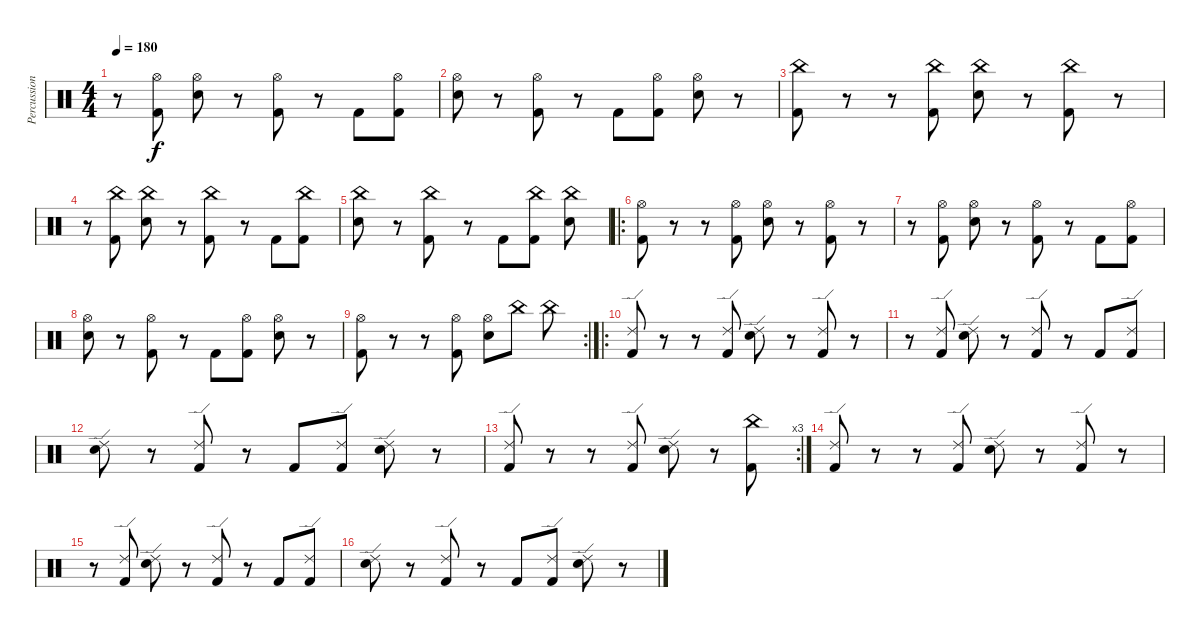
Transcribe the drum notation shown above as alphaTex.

\track ("Percussion" "Percussion") {instrument percussion}
\staff {score}
\articulation defaults
\ts (4 4)
\tempo 180
\clef neutral
\ks c
r.8{dy f} ("Kick (hit) 2" "Hi-Hat (open)").8 ("Electric Snare (hit)" "Hi-Hat (open)").8 r.8 ("Kick (hit) 2" "Hi-Hat (open)").8 r.8 "Kick (hit) 2".8 ("Kick (hit) 2" "Hi-Hat (open)").8 |
("Electric Snare (hit)" "Hi-Hat (open)").8 r.8 ("Kick (hit) 2" "Hi-Hat (open)").8 r.8 "Kick (hit) 2".8 ("Kick (hit) 2" "Hi-Hat (open)").8 ("Electric Snare (hit)" "Hi-Hat (open)").8 r.8 |
("Kick (hit) 2" "China (hit)").8 r.8 r.8 ("Kick (hit) 2" "China (hit)").8 ("Snare (hit) 2" "China (hit)").8 r.8 ("Kick (hit) 2" "China (hit)").8 r.8 |
r.8 ("Kick (hit) 2" "China (hit)").8 ("Snare (hit) 2" "China (hit)").8 r.8 ("Kick (hit) 2" "China (hit)").8 r.8 "Kick (hit) 2".8 ("Kick (hit) 2" "China (hit)").8 |
("Snare (hit) 2" "China (hit)").8 r.8 ("Kick (hit) 2" "China (hit)").8 r.8 "Kick (hit) 2".8 ("Kick (hit) 2" "China (hit)").8 ("Snare (hit) 2" "China (hit)").8 |
\ro
("Kick (hit) 2" "Hi-Hat (open)").8 r.8 r.8 ("Kick (hit) 2" "Hi-Hat (open)").8 ("Electric Snare (hit)" "Hi-Hat (open)").8 r.8 ("Kick (hit) 2" "Hi-Hat (open)").8 r.8 |
r.8 ("Kick (hit) 2" "Hi-Hat (open)").8 ("Electric Snare (hit)" "Hi-Hat (open)").8 r.8 ("Kick (hit) 2" "Hi-Hat (open)").8 r.8 "Kick (hit) 2".8 ("Kick (hit) 2" "Hi-Hat (open)").8 |
("Electric Snare (hit)" "Hi-Hat (open)").8 r.8 ("Kick (hit) 2" "Hi-Hat (open)").8 r.8 "Kick (hit) 2".8 ("Kick (hit) 2" "Hi-Hat (open)").8 ("Electric Snare (hit)" "Hi-Hat (open)").8 r.8 |
\rc 2
("Kick (hit) 2" "Hi-Hat (open)").8 r.8 r.8 ("Kick (hit) 2" "Hi-Hat (open)").8 ("Electric Snare (hit)" "Hi-Hat (open)").8 "China (hit)".8 "China (hit)".8 |
\ro
("Kick (hit) 2" "Ride (edge) 2").8 r.8 r.8 ("Kick (hit) 2" "Ride (edge) 2").8 ("Electric Snare (hit)" "Ride (edge) 2").8 r.8 ("Kick (hit) 2" "Ride (edge) 2").8 r.8 |
r.8 ("Kick (hit) 2" "Ride (edge) 2").8 ("Electric Snare (hit)" "Ride (edge) 2").8 r.8 ("Kick (hit) 2" "Ride (edge) 2").8 r.8 "Kick (hit) 2".8 ("Kick (hit) 2" "Ride (edge) 2").8 |
("Electric Snare (hit)" "Ride (edge) 2").8 r.8 ("Kick (hit) 2" "Ride (edge) 2").8 r.8 "Kick (hit) 2".8 ("Kick (hit) 2" "Ride (edge) 2").8 ("Electric Snare (hit)" "Ride (edge) 2").8 r.8 |
\rc 3
("Kick (hit) 2" "Ride (edge) 2").8 r.8 r.8 ("Kick (hit) 2" "Ride (edge) 2").8 ("Electric Snare (hit)" "Ride (edge) 2").8 r.8 ("Kick (hit) 2" "China (hit)").8 |
("Kick (hit) 2" "Ride (edge) 2").8 r.8 r.8 ("Kick (hit) 2" "Ride (edge) 2").8 ("Electric Snare (hit)" "Ride (edge) 2").8 r.8 ("Kick (hit) 2" "Ride (edge) 2").8 r.8 |
r.8 ("Kick (hit) 2" "Ride (edge) 2").8 ("Electric Snare (hit)" "Ride (edge) 2").8 r.8 ("Kick (hit) 2" "Ride (edge) 2").8 r.8 "Kick (hit) 2".8 ("Kick (hit) 2" "Ride (edge) 2").8 |
("Electric Snare (hit)" "Ride (edge) 2").8 r.8 ("Kick (hit) 2" "Ride (edge) 2").8 r.8 "Kick (hit) 2".8 ("Kick (hit) 2" "Ride (edge) 2").8 ("Electric Snare (hit)" "Ride (edge) 2").8 r.8
